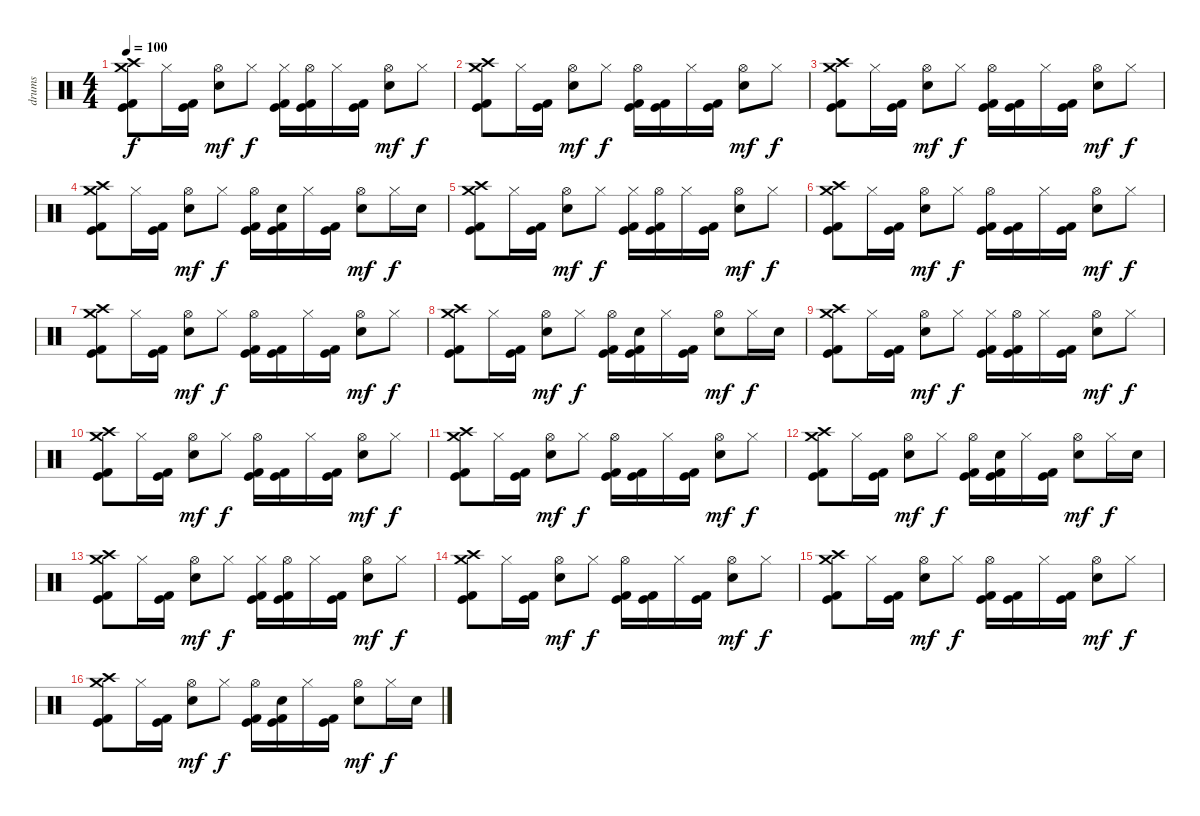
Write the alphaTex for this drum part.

\track ("drums" "drums") {instrument percussion}
\staff {score}
\articulation defaults
\ts (4 4)
\tempo 100
\clef neutral
\ks c
("Crash high (hit)" "Crash medium (hit)" "Kick (hit) 2" "Kick (hit)").8{dy f} "Hi-Hat (closed)".16 ("Kick (hit) 2" "Kick (hit)").16 ("Hi-Hat (open)" "Electric Snare (hit)").8{dy mf} "Hi-Hat (closed)".8{dy f} ("Hi-Hat (closed)" "Kick (hit) 2" "Kick (hit)").16 ("Hi-Hat (open)" "Kick (hit) 2" "Kick (hit)").16 "Hi-Hat (closed)".16 ("Kick (hit) 2" "Kick (hit)").16 ("Hi-Hat (open)" "Electric Snare (hit)").8{dy mf} "Hi-Hat (closed)".8{dy f} |
("Crash high (hit)" "Crash medium (hit)" "Kick (hit) 2" "Kick (hit)").8 "Hi-Hat (closed)".16 ("Kick (hit) 2" "Kick (hit)").16 ("Hi-Hat (open)" "Electric Snare (hit)").8{dy mf} "Hi-Hat (closed)".8{dy f} ("Hi-Hat (open)" "Kick (hit) 2" "Kick (hit)").16 ("Kick (hit) 2" "Kick (hit)").16 "Hi-Hat (closed)".16 ("Kick (hit) 2" "Kick (hit)").16 ("Hi-Hat (open)" "Electric Snare (hit)").8{dy mf} "Hi-Hat (closed)".8{dy f} |
("Crash high (hit)" "Crash medium (hit)" "Kick (hit) 2" "Kick (hit)").8 "Hi-Hat (closed)".16 ("Kick (hit) 2" "Kick (hit)").16 ("Hi-Hat (open)" "Electric Snare (hit)").8{dy mf} "Hi-Hat (closed)".8{dy f} ("Hi-Hat (open)" "Kick (hit) 2" "Kick (hit)").16 ("Kick (hit) 2" "Kick (hit)").16 "Hi-Hat (closed)".16 ("Kick (hit) 2" "Kick (hit)").16 ("Hi-Hat (open)" "Electric Snare (hit)").8{dy mf} "Hi-Hat (closed)".8{dy f} |
("Crash high (hit)" "Crash medium (hit)" "Kick (hit) 2" "Kick (hit)").8 "Hi-Hat (closed)".16 ("Kick (hit) 2" "Kick (hit)").16 ("Hi-Hat (open)" "Electric Snare (hit)").8{dy mf} "Hi-Hat (closed)".8{dy f} ("Hi-Hat (open)" "Kick (hit) 2" "Kick (hit)").16 ("Electric Snare (hit)" "Kick (hit) 2" "Kick (hit)").16 "Hi-Hat (closed)".16 ("Kick (hit) 2" "Kick (hit)").16 ("Hi-Hat (open)" "Electric Snare (hit)").8{dy mf} "Hi-Hat (closed)".16{dy f} "Electric Snare (hit)".16 |
("Crash high (hit)" "Crash medium (hit)" "Kick (hit) 2" "Kick (hit)").8 "Hi-Hat (closed)".16 ("Kick (hit) 2" "Kick (hit)").16 ("Hi-Hat (open)" "Electric Snare (hit)").8{dy mf} "Hi-Hat (closed)".8{dy f} ("Hi-Hat (closed)" "Kick (hit) 2" "Kick (hit)").16 ("Hi-Hat (open)" "Kick (hit) 2" "Kick (hit)").16 "Hi-Hat (closed)".16 ("Kick (hit) 2" "Kick (hit)").16 ("Hi-Hat (open)" "Electric Snare (hit)").8{dy mf} "Hi-Hat (closed)".8{dy f} |
("Crash high (hit)" "Crash medium (hit)" "Kick (hit) 2" "Kick (hit)").8 "Hi-Hat (closed)".16 ("Kick (hit) 2" "Kick (hit)").16 ("Hi-Hat (open)" "Electric Snare (hit)").8{dy mf} "Hi-Hat (closed)".8{dy f} ("Hi-Hat (open)" "Kick (hit) 2" "Kick (hit)").16 ("Kick (hit) 2" "Kick (hit)").16 "Hi-Hat (closed)".16 ("Kick (hit) 2" "Kick (hit)").16 ("Hi-Hat (open)" "Electric Snare (hit)").8{dy mf} "Hi-Hat (closed)".8{dy f} |
("Crash high (hit)" "Crash medium (hit)" "Kick (hit) 2" "Kick (hit)").8 "Hi-Hat (closed)".16 ("Kick (hit) 2" "Kick (hit)").16 ("Hi-Hat (open)" "Electric Snare (hit)").8{dy mf} "Hi-Hat (closed)".8{dy f} ("Hi-Hat (open)" "Kick (hit) 2" "Kick (hit)").16 ("Kick (hit) 2" "Kick (hit)").16 "Hi-Hat (closed)".16 ("Kick (hit) 2" "Kick (hit)").16 ("Hi-Hat (open)" "Electric Snare (hit)").8{dy mf} "Hi-Hat (closed)".8{dy f} |
("Crash high (hit)" "Crash medium (hit)" "Kick (hit) 2" "Kick (hit)").8 "Hi-Hat (closed)".16 ("Kick (hit) 2" "Kick (hit)").16 ("Hi-Hat (open)" "Electric Snare (hit)").8{dy mf} "Hi-Hat (closed)".8{dy f} ("Hi-Hat (open)" "Kick (hit) 2" "Kick (hit)").16 ("Electric Snare (hit)" "Kick (hit) 2" "Kick (hit)").16 "Hi-Hat (closed)".16 ("Kick (hit) 2" "Kick (hit)").16 ("Hi-Hat (open)" "Electric Snare (hit)").8{dy mf} "Hi-Hat (closed)".16{dy f} "Electric Snare (hit)".16 |
("Crash high (hit)" "Crash medium (hit)" "Kick (hit) 2" "Kick (hit)").8 "Hi-Hat (closed)".16 ("Kick (hit) 2" "Kick (hit)").16 ("Hi-Hat (open)" "Electric Snare (hit)").8{dy mf} "Hi-Hat (closed)".8{dy f} ("Hi-Hat (closed)" "Kick (hit) 2" "Kick (hit)").16 ("Hi-Hat (open)" "Kick (hit) 2" "Kick (hit)").16 "Hi-Hat (closed)".16 ("Kick (hit) 2" "Kick (hit)").16 ("Hi-Hat (open)" "Electric Snare (hit)").8{dy mf} "Hi-Hat (closed)".8{dy f} |
("Crash high (hit)" "Crash medium (hit)" "Kick (hit) 2" "Kick (hit)").8 "Hi-Hat (closed)".16 ("Kick (hit) 2" "Kick (hit)").16 ("Hi-Hat (open)" "Electric Snare (hit)").8{dy mf} "Hi-Hat (closed)".8{dy f} ("Hi-Hat (open)" "Kick (hit) 2" "Kick (hit)").16 ("Kick (hit) 2" "Kick (hit)").16 "Hi-Hat (closed)".16 ("Kick (hit) 2" "Kick (hit)").16 ("Hi-Hat (open)" "Electric Snare (hit)").8{dy mf} "Hi-Hat (closed)".8{dy f} |
("Crash high (hit)" "Crash medium (hit)" "Kick (hit) 2" "Kick (hit)").8 "Hi-Hat (closed)".16 ("Kick (hit) 2" "Kick (hit)").16 ("Hi-Hat (open)" "Electric Snare (hit)").8{dy mf} "Hi-Hat (closed)".8{dy f} ("Hi-Hat (open)" "Kick (hit) 2" "Kick (hit)").16 ("Kick (hit) 2" "Kick (hit)").16 "Hi-Hat (closed)".16 ("Kick (hit) 2" "Kick (hit)").16 ("Hi-Hat (open)" "Electric Snare (hit)").8{dy mf} "Hi-Hat (closed)".8{dy f} |
("Crash high (hit)" "Crash medium (hit)" "Kick (hit) 2" "Kick (hit)").8 "Hi-Hat (closed)".16 ("Kick (hit) 2" "Kick (hit)").16 ("Hi-Hat (open)" "Electric Snare (hit)").8{dy mf} "Hi-Hat (closed)".8{dy f} ("Hi-Hat (open)" "Kick (hit) 2" "Kick (hit)").16 ("Electric Snare (hit)" "Kick (hit) 2" "Kick (hit)").16 "Hi-Hat (closed)".16 ("Kick (hit) 2" "Kick (hit)").16 ("Hi-Hat (open)" "Electric Snare (hit)").8{dy mf} "Hi-Hat (closed)".16{dy f} "Electric Snare (hit)".16 |
("Crash high (hit)" "Crash medium (hit)" "Kick (hit) 2" "Kick (hit)").8 "Hi-Hat (closed)".16 ("Kick (hit) 2" "Kick (hit)").16 ("Hi-Hat (open)" "Electric Snare (hit)").8{dy mf} "Hi-Hat (closed)".8{dy f} ("Hi-Hat (closed)" "Kick (hit) 2" "Kick (hit)").16 ("Hi-Hat (open)" "Kick (hit) 2" "Kick (hit)").16 "Hi-Hat (closed)".16 ("Kick (hit) 2" "Kick (hit)").16 ("Hi-Hat (open)" "Electric Snare (hit)").8{dy mf} "Hi-Hat (closed)".8{dy f} |
("Crash high (hit)" "Crash medium (hit)" "Kick (hit) 2" "Kick (hit)").8 "Hi-Hat (closed)".16 ("Kick (hit) 2" "Kick (hit)").16 ("Hi-Hat (open)" "Electric Snare (hit)").8{dy mf} "Hi-Hat (closed)".8{dy f} ("Hi-Hat (open)" "Kick (hit) 2" "Kick (hit)").16 ("Kick (hit) 2" "Kick (hit)").16 "Hi-Hat (closed)".16 ("Kick (hit) 2" "Kick (hit)").16 ("Hi-Hat (open)" "Electric Snare (hit)").8{dy mf} "Hi-Hat (closed)".8{dy f} |
("Crash high (hit)" "Crash medium (hit)" "Kick (hit) 2" "Kick (hit)").8{volume 0} "Hi-Hat (closed)".16 ("Kick (hit) 2" "Kick (hit)").16 ("Hi-Hat (open)" "Electric Snare (hit)").8{dy mf} "Hi-Hat (closed)".8{dy f} ("Hi-Hat (open)" "Kick (hit) 2" "Kick (hit)").16 ("Kick (hit) 2" "Kick (hit)").16 "Hi-Hat (closed)".16 ("Kick (hit) 2" "Kick (hit)").16 ("Hi-Hat (open)" "Electric Snare (hit)").8{dy mf} "Hi-Hat (closed)".8{dy f} |
("Crash high (hit)" "Crash medium (hit)" "Kick (hit) 2" "Kick (hit)").8 "Hi-Hat (closed)".16 ("Kick (hit) 2" "Kick (hit)").16 ("Hi-Hat (open)" "Electric Snare (hit)").8{dy mf} "Hi-Hat (closed)".8{dy f} ("Hi-Hat (open)" "Kick (hit) 2" "Kick (hit)").16 ("Electric Snare (hit)" "Kick (hit) 2" "Kick (hit)").16 "Hi-Hat (closed)".16 ("Kick (hit) 2" "Kick (hit)").16 ("Hi-Hat (open)" "Electric Snare (hit)").8{dy mf} "Hi-Hat (closed)".16{dy f} "Electric Snare (hit)".16
